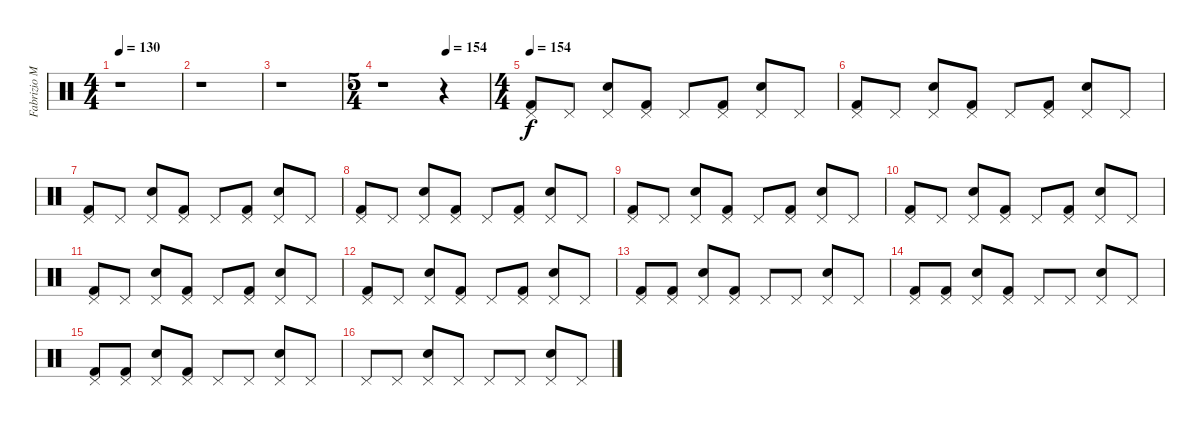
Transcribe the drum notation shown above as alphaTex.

\track ("Fabrizio Moretti" "Fabrizio M") {instrument percussion}
\staff {score}
\articulation defaults
\ts (4 4)
\tempo 130
\clef neutral
\ks c
r.1{dy f} |
r.1 |
r.1 |
\ts (5 4)
\tempo (154 0.6)
r.1 r.4 |
\ts (4 4)
\tempo 154
("Pedal Hi-Hat (hit)" "Kick (hit) 2").8 "Pedal Hi-Hat (hit)".8 ("Pedal Hi-Hat (hit)" "Electric Snare (hit)").8 ("Pedal Hi-Hat (hit)" "Kick (hit) 2").8 "Pedal Hi-Hat (hit)".8 ("Pedal Hi-Hat (hit)" "Kick (hit) 2").8 ("Pedal Hi-Hat (hit)" "Electric Snare (hit)").8 "Pedal Hi-Hat (hit)".8 |
("Pedal Hi-Hat (hit)" "Kick (hit) 2").8 "Pedal Hi-Hat (hit)".8 ("Pedal Hi-Hat (hit)" "Electric Snare (hit)").8 ("Pedal Hi-Hat (hit)" "Kick (hit) 2").8 "Pedal Hi-Hat (hit)".8 ("Pedal Hi-Hat (hit)" "Kick (hit) 2").8 ("Pedal Hi-Hat (hit)" "Electric Snare (hit)").8 "Pedal Hi-Hat (hit)".8 |
("Pedal Hi-Hat (hit)" "Kick (hit) 2").8 "Pedal Hi-Hat (hit)".8 ("Pedal Hi-Hat (hit)" "Electric Snare (hit)").8 ("Pedal Hi-Hat (hit)" "Kick (hit) 2").8 "Pedal Hi-Hat (hit)".8 ("Pedal Hi-Hat (hit)" "Kick (hit) 2").8 ("Pedal Hi-Hat (hit)" "Electric Snare (hit)").8 "Pedal Hi-Hat (hit)".8 |
("Pedal Hi-Hat (hit)" "Kick (hit) 2").8 "Pedal Hi-Hat (hit)".8 ("Pedal Hi-Hat (hit)" "Electric Snare (hit)").8 ("Pedal Hi-Hat (hit)" "Kick (hit) 2").8 "Pedal Hi-Hat (hit)".8 ("Pedal Hi-Hat (hit)" "Kick (hit) 2").8 ("Pedal Hi-Hat (hit)" "Electric Snare (hit)").8 "Pedal Hi-Hat (hit)".8 |
("Pedal Hi-Hat (hit)" "Kick (hit) 2").8 "Pedal Hi-Hat (hit)".8 ("Pedal Hi-Hat (hit)" "Electric Snare (hit)").8 ("Pedal Hi-Hat (hit)" "Kick (hit) 2").8 "Pedal Hi-Hat (hit)".8 ("Pedal Hi-Hat (hit)" "Kick (hit) 2").8 ("Pedal Hi-Hat (hit)" "Electric Snare (hit)").8 "Pedal Hi-Hat (hit)".8 |
("Pedal Hi-Hat (hit)" "Kick (hit) 2").8 "Pedal Hi-Hat (hit)".8 ("Pedal Hi-Hat (hit)" "Electric Snare (hit)").8 ("Pedal Hi-Hat (hit)" "Kick (hit) 2").8 "Pedal Hi-Hat (hit)".8 ("Pedal Hi-Hat (hit)" "Kick (hit) 2").8 ("Pedal Hi-Hat (hit)" "Electric Snare (hit)").8 "Pedal Hi-Hat (hit)".8 |
("Pedal Hi-Hat (hit)" "Kick (hit) 2").8 "Pedal Hi-Hat (hit)".8 ("Pedal Hi-Hat (hit)" "Electric Snare (hit)").8 ("Pedal Hi-Hat (hit)" "Kick (hit) 2").8 "Pedal Hi-Hat (hit)".8 ("Pedal Hi-Hat (hit)" "Kick (hit) 2").8 ("Pedal Hi-Hat (hit)" "Electric Snare (hit)").8 "Pedal Hi-Hat (hit)".8 |
("Pedal Hi-Hat (hit)" "Kick (hit) 2").8 "Pedal Hi-Hat (hit)".8 ("Pedal Hi-Hat (hit)" "Electric Snare (hit)").8 ("Pedal Hi-Hat (hit)" "Kick (hit) 2").8 "Pedal Hi-Hat (hit)".8 ("Pedal Hi-Hat (hit)" "Kick (hit) 2").8 ("Pedal Hi-Hat (hit)" "Electric Snare (hit)").8 "Pedal Hi-Hat (hit)".8 |
("Pedal Hi-Hat (hit)" "Kick (hit) 2").8 ("Pedal Hi-Hat (hit)" "Kick (hit) 2").8 ("Pedal Hi-Hat (hit)" "Electric Snare (hit)").8 ("Pedal Hi-Hat (hit)" "Kick (hit) 2").8 "Pedal Hi-Hat (hit)".8 "Pedal Hi-Hat (hit)".8 ("Pedal Hi-Hat (hit)" "Electric Snare (hit)").8 "Pedal Hi-Hat (hit)".8 |
("Pedal Hi-Hat (hit)" "Kick (hit) 2").8 ("Pedal Hi-Hat (hit)" "Kick (hit) 2").8 ("Pedal Hi-Hat (hit)" "Electric Snare (hit)").8 ("Pedal Hi-Hat (hit)" "Kick (hit) 2").8 "Pedal Hi-Hat (hit)".8 "Pedal Hi-Hat (hit)".8 ("Pedal Hi-Hat (hit)" "Electric Snare (hit)").8 "Pedal Hi-Hat (hit)".8 |
("Pedal Hi-Hat (hit)" "Kick (hit) 2").8 ("Pedal Hi-Hat (hit)" "Kick (hit) 2").8 ("Pedal Hi-Hat (hit)" "Electric Snare (hit)").8 ("Pedal Hi-Hat (hit)" "Kick (hit) 2").8 "Pedal Hi-Hat (hit)".8 "Pedal Hi-Hat (hit)".8 ("Pedal Hi-Hat (hit)" "Electric Snare (hit)").8 "Pedal Hi-Hat (hit)".8 |
"Pedal Hi-Hat (hit)".8 "Pedal Hi-Hat (hit)".8 ("Pedal Hi-Hat (hit)" "Electric Snare (hit)").8 "Pedal Hi-Hat (hit)".8 "Pedal Hi-Hat (hit)".8 "Pedal Hi-Hat (hit)".8 ("Pedal Hi-Hat (hit)" "Electric Snare (hit)").8 "Pedal Hi-Hat (hit)".8
